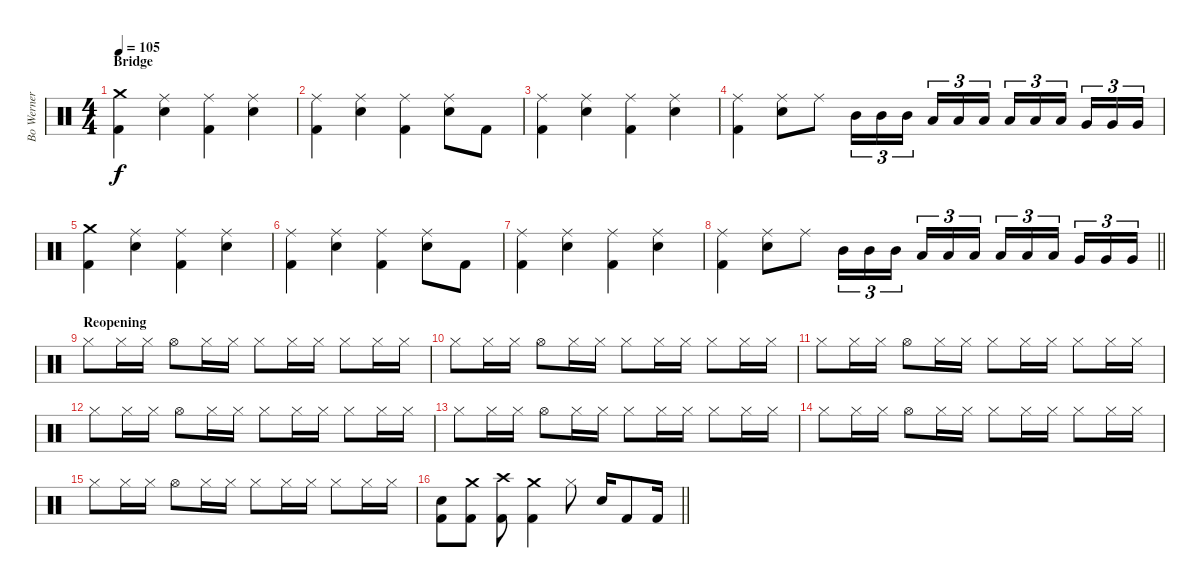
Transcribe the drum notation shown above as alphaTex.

\track ("Bo Werner" "Bo Werner") {instrument percussion}
\staff {score}
\articulation defaults
\ts (4 4)
\section ("" "Bridge")
\tempo 105
\clef neutral
\ks c
("Crash medium (hit)" "Kick (hit) 2").4{dy f} ("Ride (middle)" "Snare (hit) 2").4 ("Ride (middle)" "Kick (hit) 2").4 ("Ride (middle)" "Snare (hit) 2").4 |
("Ride (middle)" "Kick (hit) 2").4 ("Ride (middle)" "Snare (hit) 2").4 ("Ride (middle)" "Kick (hit) 2").4 ("Ride (middle)" "Snare (hit) 2").8 "Kick (hit) 2".8 |
("Ride (middle)" "Kick (hit) 2").4 ("Ride (middle)" "Snare (hit) 2").4 ("Ride (middle)" "Kick (hit) 2").4 ("Ride (middle)" "Snare (hit) 2").4 |
("Ride (middle)" "Kick (hit) 2").4 ("Ride (middle)" "Snare (hit) 2").8 "Ride (middle)".8 "Mid Tom (hit)".16{tu (3 2)} "Mid Tom (hit)".16{tu (3 2)} "Mid Tom (hit)".16{tu (3 2) beam splitsecondary} "Low Tom (hit)".16{tu (3 2)} "Low Tom (hit)".16{tu (3 2)} "Low Tom (hit)".16{tu (3 2)} "Low Floor Tom (hit)".16{tu (3 2)} "Low Floor Tom (hit)".16{tu (3 2)} "Low Floor Tom (hit)".16{tu (3 2) beam splitsecondary} "Very Low Tom (hit)".16{tu (3 2)} "Very Low Tom (hit)".16{tu (3 2)} "Very Low Tom (hit)".16{tu (3 2)} |
("Crash medium (hit)" "Kick (hit) 2").4 ("Ride (middle)" "Snare (hit) 2").4 ("Ride (middle)" "Kick (hit) 2").4 ("Ride (middle)" "Snare (hit) 2").4 |
("Ride (middle)" "Kick (hit) 2").4 ("Ride (middle)" "Snare (hit) 2").4 ("Ride (middle)" "Kick (hit) 2").4 ("Ride (middle)" "Snare (hit) 2").8 "Kick (hit) 2".8 |
("Ride (middle)" "Kick (hit) 2").4 ("Ride (middle)" "Snare (hit) 2").4 ("Ride (middle)" "Kick (hit) 2").4 ("Ride (middle)" "Snare (hit) 2").4 |
\barLineRight lightlight
("Ride (middle)" "Kick (hit) 2").4 ("Ride (middle)" "Snare (hit) 2").8 "Ride (middle)".8 "Mid Tom (hit)".16{tu (3 2)} "Mid Tom (hit)".16{tu (3 2)} "Mid Tom (hit)".16{tu (3 2) beam splitsecondary} "Low Tom (hit)".16{tu (3 2)} "Low Tom (hit)".16{tu (3 2)} "Low Tom (hit)".16{tu (3 2)} "Low Floor Tom (hit)".16{tu (3 2)} "Low Floor Tom (hit)".16{tu (3 2)} "Low Floor Tom (hit)".16{tu (3 2) beam splitsecondary} "Very Low Tom (hit)".16{tu (3 2)} "Very Low Tom (hit)".16{tu (3 2)} "Very Low Tom (hit)".16{tu (3 2)} |
\section ("" "Reopening")
"Hi-Hat (closed)".8 "Hi-Hat (closed)".16 "Hi-Hat (closed)".16 "Hi-Hat (open)".8 "Hi-Hat (closed)".16 "Hi-Hat (closed)".16 "Hi-Hat (closed)".8 "Hi-Hat (closed)".16 "Hi-Hat (closed)".16 "Hi-Hat (closed)".8 "Hi-Hat (closed)".16 "Hi-Hat (closed)".16 |
"Hi-Hat (closed)".8 "Hi-Hat (closed)".16 "Hi-Hat (closed)".16 "Hi-Hat (open)".8 "Hi-Hat (closed)".16 "Hi-Hat (closed)".16 "Hi-Hat (closed)".8 "Hi-Hat (closed)".16 "Hi-Hat (closed)".16 "Hi-Hat (closed)".8 "Hi-Hat (closed)".16 "Hi-Hat (closed)".16 |
"Hi-Hat (closed)".8 "Hi-Hat (closed)".16 "Hi-Hat (closed)".16 "Hi-Hat (open)".8 "Hi-Hat (closed)".16 "Hi-Hat (closed)".16 "Hi-Hat (closed)".8 "Hi-Hat (closed)".16 "Hi-Hat (closed)".16 "Hi-Hat (closed)".8 "Hi-Hat (closed)".16 "Hi-Hat (closed)".16 |
"Hi-Hat (closed)".8 "Hi-Hat (closed)".16 "Hi-Hat (closed)".16 "Hi-Hat (open)".8 "Hi-Hat (closed)".16 "Hi-Hat (closed)".16 "Hi-Hat (closed)".8 "Hi-Hat (closed)".16 "Hi-Hat (closed)".16 "Hi-Hat (closed)".8 "Hi-Hat (closed)".16 "Hi-Hat (closed)".16 |
"Hi-Hat (closed)".8 "Hi-Hat (closed)".16 "Hi-Hat (closed)".16 "Hi-Hat (open)".8 "Hi-Hat (closed)".16 "Hi-Hat (closed)".16 "Hi-Hat (closed)".8 "Hi-Hat (closed)".16 "Hi-Hat (closed)".16 "Hi-Hat (closed)".8 "Hi-Hat (closed)".16 "Hi-Hat (closed)".16 |
"Hi-Hat (closed)".8 "Hi-Hat (closed)".16 "Hi-Hat (closed)".16 "Hi-Hat (open)".8 "Hi-Hat (closed)".16 "Hi-Hat (closed)".16 "Hi-Hat (closed)".8 "Hi-Hat (closed)".16 "Hi-Hat (closed)".16 "Hi-Hat (closed)".8 "Hi-Hat (closed)".16 "Hi-Hat (closed)".16 |
"Hi-Hat (closed)".8 "Hi-Hat (closed)".16 "Hi-Hat (closed)".16 "Hi-Hat (open)".8 "Hi-Hat (closed)".16 "Hi-Hat (closed)".16 "Hi-Hat (closed)".8 "Hi-Hat (closed)".16 "Hi-Hat (closed)".16 "Hi-Hat (closed)".8 "Hi-Hat (closed)".16 "Hi-Hat (closed)".16 |
\barLineRight lightlight
("Snare (hit) 2" "Kick (hit) 2").8 ("Crash medium (hit)" "Kick (hit) 2").8 ("Crash high (hit)" "Kick (hit) 2").8 ("Crash medium (hit)" "Kick (hit) 2").4 "Hi-Hat (closed)".8 "Snare (hit) 2".16 "Kick (hit) 2".8 "Kick (hit) 2".16
